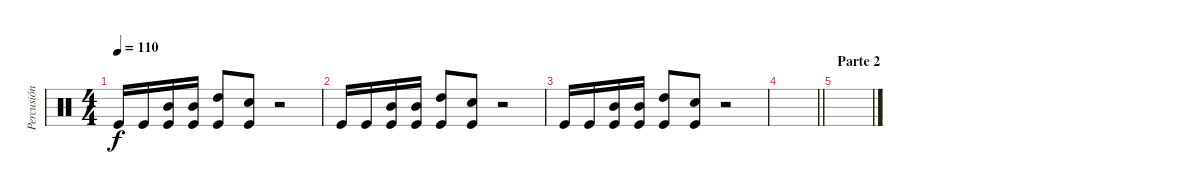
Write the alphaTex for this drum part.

\track ("Percusión" "Percusión") {instrument percussion}
\staff {score}
\articulation defaults
\ts (4 4)
\tempo 110
\clef neutral
\ks c "Kick (hit)".16{dy f} "Kick (hit)".16
("Mid Tom (hit)" "Kick (hit)").16 ("Mid Tom (hit)" "Kick (hit)").16 ("High Tom (hit)" "Kick (hit)").8 ("Snare (hit) 2" "Kick (hit)").8 r.2 |
"Kick (hit)".16 "Kick (hit)".16 ("Mid Tom (hit)" "Kick (hit)").16 ("Mid Tom (hit)" "Kick (hit)").16 ("High Tom (hit)" "Kick (hit)").8 ("Electric Snare (hit)" "Kick (hit)").8 r.2 |
"Kick (hit)".16 "Kick (hit)".16 ("Mid Tom (hit)" "Kick (hit)").16 ("Mid Tom (hit)" "Kick (hit)").16 ("High Tom (hit)" "Kick (hit)").8 ("Electric Snare (hit)" "Kick (hit)").8 r.2 |
\barLineRight lightlight
|
\section ("" "Parte 2")
